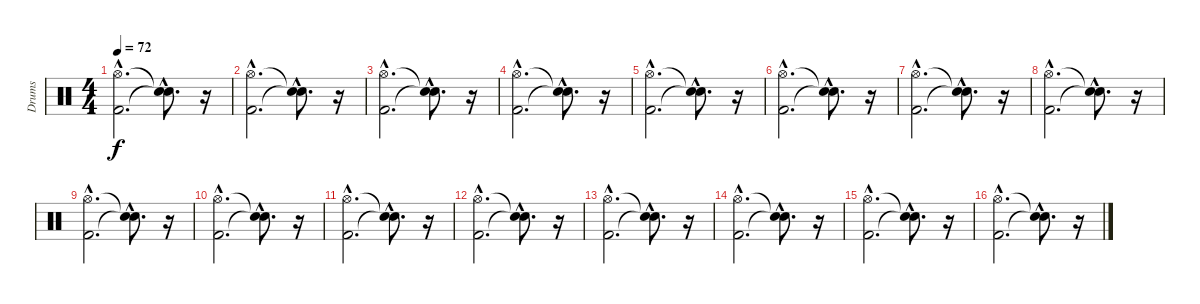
\track ("Drums" "Drums") {instrument percussion}
\staff {score}
\articulation defaults
\ts (4 4)
\tempo 72
\clef neutral
\ks c
("Kick (hit) 2"{hac} "Hi-Hat (open)"{hac}).2{d dy f} ("Snare (hit)"{hac t} "Snare (hit)"{hac t}).8{d} r.16 |
("Kick (hit) 2"{hac} "Hi-Hat (open)"{hac}).2{d} ("Snare (hit)"{hac t} "Snare (hit)"{hac t}).8{d} r.16 |
("Kick (hit) 2"{hac} "Hi-Hat (open)"{hac}).2{d} ("Snare (hit)"{hac t} "Snare (hit)"{hac t}).8{d} r.16 |
("Kick (hit) 2"{hac} "Hi-Hat (open)"{hac}).2{d} ("Snare (hit)"{hac t} "Snare (hit)"{hac t}).8{d} r.16 |
("Kick (hit) 2"{hac} "Hi-Hat (open)"{hac}).2{d} ("Snare (hit)"{hac t} "Snare (hit)"{hac t}).8{d} r.16 |
("Kick (hit) 2"{hac} "Hi-Hat (open)"{hac}).2{d} ("Snare (hit)"{hac t} "Snare (hit)"{hac t}).8{d} r.16 |
("Kick (hit) 2"{hac} "Hi-Hat (open)"{hac}).2{d} ("Snare (hit)"{hac t} "Snare (hit)"{hac t}).8{d} r.16 |
("Kick (hit) 2"{hac} "Hi-Hat (open)"{hac}).2{d} ("Snare (hit)"{hac t} "Snare (hit)"{hac t}).8{d} r.16 |
("Kick (hit) 2"{hac} "Hi-Hat (open)"{hac}).2{d} ("Snare (hit)"{hac t} "Snare (hit)"{hac t}).8{d} r.16 |
("Kick (hit) 2"{hac} "Hi-Hat (open)"{hac}).2{d} ("Snare (hit)"{hac t} "Snare (hit)"{hac t}).8{d} r.16 |
("Kick (hit) 2"{hac} "Hi-Hat (open)"{hac}).2{d} ("Snare (hit)"{hac t} "Snare (hit)"{hac t}).8{d} r.16 |
("Kick (hit) 2"{hac} "Hi-Hat (open)"{hac}).2{d} ("Snare (hit)"{hac t} "Snare (hit)"{hac t}).8{d} r.16 |
("Kick (hit) 2"{hac} "Hi-Hat (open)"{hac}).2{d} ("Snare (hit)"{hac t} "Snare (hit)"{hac t}).8{d} r.16 |
("Kick (hit) 2"{hac} "Hi-Hat (open)"{hac}).2{d} ("Snare (hit)"{hac t} "Snare (hit)"{hac t}).8{d} r.16 |
("Kick (hit) 2"{hac} "Hi-Hat (open)"{hac}).2{d} ("Snare (hit)"{hac t} "Snare (hit)"{hac t}).8{d} r.16 |
("Kick (hit) 2"{hac} "Hi-Hat (open)"{hac}).2{d} ("Snare (hit)"{hac t} "Snare (hit)"{hac t}).8{d} r.16
